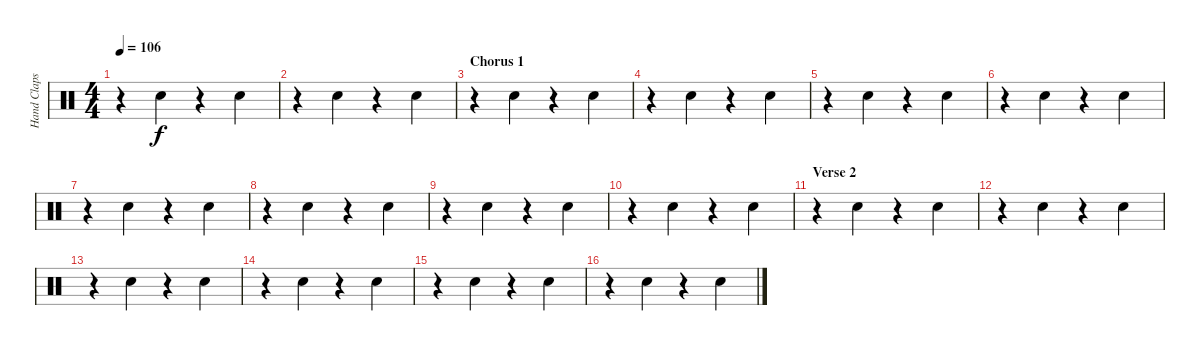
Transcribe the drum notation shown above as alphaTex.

\track ("Hand Claps" "Hand Claps") {instrument percussion}
\staff {score}
\articulation defaults
\ts (4 4)
\tempo 106
\clef neutral
\ks c
r.4{dy f} "Hand Clap (hit)".4 r.4 "Hand Clap (hit)".4 |
r.4 "Hand Clap (hit)".4 r.4 "Hand Clap (hit)".4 |
\section ("" "Chorus 1")
r.4 "Hand Clap (hit)".4 r.4 "Hand Clap (hit)".4 |
r.4 "Hand Clap (hit)".4 r.4 "Hand Clap (hit)".4 |
r.4 "Hand Clap (hit)".4 r.4 "Hand Clap (hit)".4 |
r.4 "Hand Clap (hit)".4 r.4 "Hand Clap (hit)".4 |
r.4 "Hand Clap (hit)".4 r.4 "Hand Clap (hit)".4 |
r.4 "Hand Clap (hit)".4 r.4 "Hand Clap (hit)".4 |
r.4 "Hand Clap (hit)".4 r.4 "Hand Clap (hit)".4 |
r.4 "Hand Clap (hit)".4 r.4 "Hand Clap (hit)".4 |
\section ("" "Verse 2")
r.4 "Hand Clap (hit)".4 r.4 "Hand Clap (hit)".4 |
r.4 "Hand Clap (hit)".4 r.4 "Hand Clap (hit)".4 |
r.4 "Hand Clap (hit)".4 r.4 "Hand Clap (hit)".4 |
r.4 "Hand Clap (hit)".4 r.4 "Hand Clap (hit)".4 |
r.4 "Hand Clap (hit)".4 r.4 "Hand Clap (hit)".4 |
r.4 "Hand Clap (hit)".4 r.4 "Hand Clap (hit)".4
